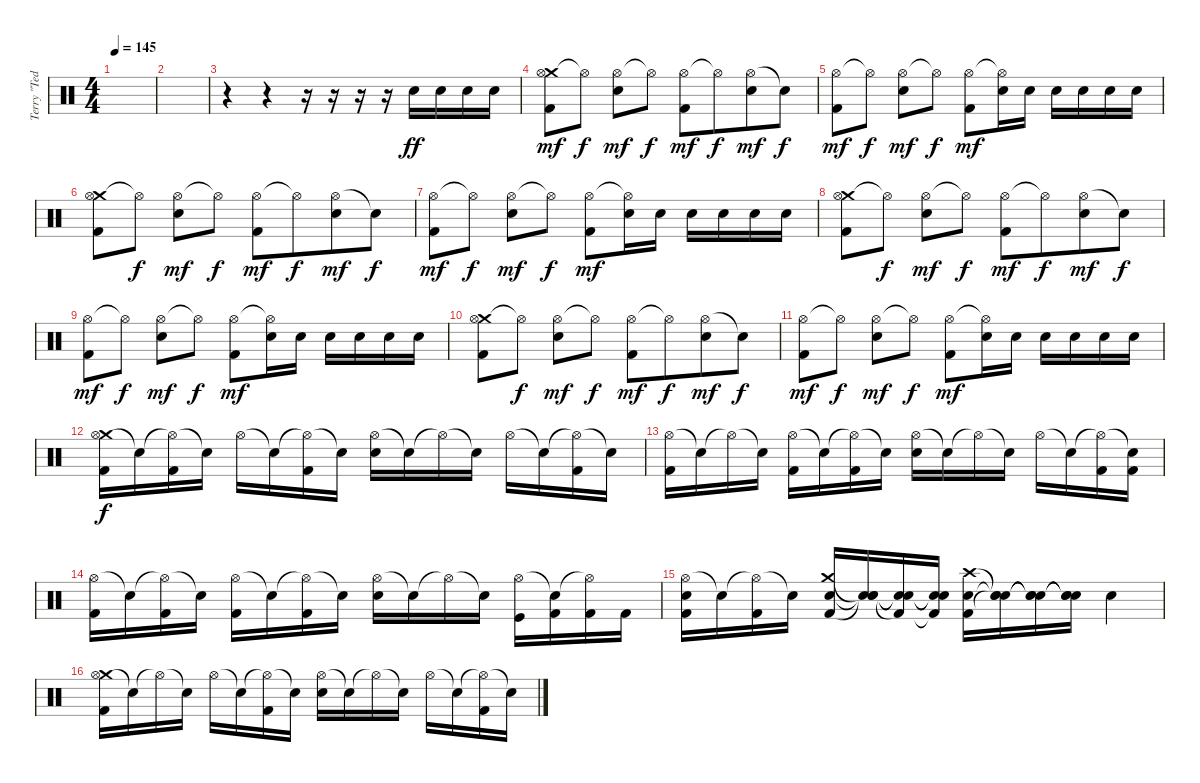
\track ("Terry \"Ted\" Bozzio" "Terry \"Ted") {instrument percussion}
\staff {score}
\articulation defaults
\ts (4 4)
\tempo 145
\clef neutral
\ks c
|
|
r.4 r.4 r.16 r.16 r.16{beam merge} r.16 "Electric Snare (hit)".16{dy ff beam merge} "Electric Snare (hit)".16 "Electric Snare (hit)".16 "Electric Snare (hit)".16 |
("Crash medium (hit)" "Hi-Hat (open)" "Kick (hit) 2").8{dy mf beam merge} "Hi-Hat (open)"{t}.8{dy f} ("Hi-Hat (open)" "Electric Snare (hit)").8{dy mf} "Hi-Hat (open)"{t}.8{dy f} ("Hi-Hat (open)" "Kick (hit) 2").8{dy mf beam merge} "Hi-Hat (open)"{t}.8{dy f beam merge} ("Hi-Hat (open)" "Electric Snare (hit)").8{dy mf} "Snare (hit)"{t}.8{dy f} |
("Hi-Hat (open)" "Kick (hit) 2").8{dy mf beam merge} "Hi-Hat (open)"{t}.8{dy f} ("Hi-Hat (open)" "Electric Snare (hit)").8{dy mf} "Hi-Hat (open)"{t}.8{dy f} ("Hi-Hat (open)" "Kick (hit) 2").8{dy mf beam merge} ("Hi-Hat (open)"{t} "Electric Snare (hit)").16 "Electric Snare (hit)".16 "Electric Snare (hit)".16 "Electric Snare (hit)".16 "Electric Snare (hit)".16 "Electric Snare (hit)".16 |
("Crash medium (hit)" "Hi-Hat (open)" "Kick (hit) 2").8{beam merge} "Hi-Hat (open)"{t}.8{dy f} ("Hi-Hat (open)" "Electric Snare (hit)").8{dy mf} "Hi-Hat (open)"{t}.8{dy f} ("Hi-Hat (open)" "Kick (hit) 2").8{dy mf beam merge} "Hi-Hat (open)"{t}.8{dy f beam merge} ("Hi-Hat (open)" "Electric Snare (hit)").8{dy mf} "Snare (hit)"{t}.8{dy f} |
("Hi-Hat (open)" "Kick (hit) 2").8{dy mf beam merge} "Hi-Hat (open)"{t}.8{dy f} ("Hi-Hat (open)" "Electric Snare (hit)").8{dy mf} "Hi-Hat (open)"{t}.8{dy f} ("Hi-Hat (open)" "Kick (hit) 2").8{dy mf beam merge} ("Hi-Hat (open)"{t} "Electric Snare (hit)").16 "Electric Snare (hit)".16 "Electric Snare (hit)".16 "Electric Snare (hit)".16 "Electric Snare (hit)".16 "Electric Snare (hit)".16 |
("Crash medium (hit)" "Hi-Hat (open)" "Kick (hit) 2").8{beam merge} "Hi-Hat (open)"{t}.8{dy f} ("Hi-Hat (open)" "Electric Snare (hit)").8{dy mf} "Hi-Hat (open)"{t}.8{dy f} ("Hi-Hat (open)" "Kick (hit) 2").8{dy mf beam merge} "Hi-Hat (open)"{t}.8{dy f beam merge} ("Hi-Hat (open)" "Electric Snare (hit)").8{dy mf} "Snare (hit)"{t}.8{dy f} |
("Hi-Hat (open)" "Kick (hit) 2").8{dy mf beam merge} "Hi-Hat (open)"{t}.8{dy f} ("Hi-Hat (open)" "Electric Snare (hit)").8{dy mf} "Hi-Hat (open)"{t}.8{dy f} ("Hi-Hat (open)" "Kick (hit) 2").8{dy mf beam merge} ("Hi-Hat (open)"{t} "Electric Snare (hit)").16 "Electric Snare (hit)".16 "Electric Snare (hit)".16 "Electric Snare (hit)".16 "Electric Snare (hit)".16 "Electric Snare (hit)".16 |
("Crash medium (hit)" "Hi-Hat (open)" "Kick (hit) 2").8{beam merge} "Hi-Hat (open)"{t}.8{dy f} ("Hi-Hat (open)" "Electric Snare (hit)").8{dy mf} "Hi-Hat (open)"{t}.8{dy f} ("Hi-Hat (open)" "Kick (hit) 2").8{dy mf beam merge} "Hi-Hat (open)"{t}.8{dy f beam merge} ("Hi-Hat (open)" "Electric Snare (hit)").8{dy mf} "Snare (hit)"{t}.8{dy f} |
("Hi-Hat (open)" "Kick (hit) 2").8{dy mf beam merge} "Hi-Hat (open)"{t}.8{dy f} ("Hi-Hat (open)" "Electric Snare (hit)").8{dy mf} "Hi-Hat (open)"{t}.8{dy f} ("Hi-Hat (open)" "Kick (hit) 2").8{dy mf beam merge} ("Hi-Hat (open)"{t} "Electric Snare (hit)").16 "Electric Snare (hit)".16 "Electric Snare (hit)".16 "Electric Snare (hit)".16 "Electric Snare (hit)".16 "Electric Snare (hit)".16 |
("Crash medium (hit)" "Hi-Hat (open)" "Kick (hit) 2").16{dy f beam merge} "Snare (hit)"{t}.16 ("Hi-Hat (open)"{t} "Kick (hit) 2").16 "Snare (hit)"{t}.16 "Hi-Hat (open)".16 "Snare (hit)"{t}.16{beam merge} ("Hi-Hat (open)"{t} "Kick (hit) 2").16{beam merge} "Snare (hit)"{t}.16 ("Hi-Hat (open)" "Electric Snare (hit)").16 "Snare (hit)"{t}.16 "Hi-Hat (open)"{t}.16 "Snare (hit)"{t}.16 "Hi-Hat (open)".16 "Snare (hit)"{t}.16 ("Hi-Hat (open)"{t} "Kick (hit) 2").16 "Snare (hit)"{t}.16 |
("Hi-Hat (open)" "Kick (hit) 2").16{beam merge} "Snare (hit)"{t}.16 "Hi-Hat (open)"{t}.16 "Snare (hit)"{t}.16 ("Hi-Hat (open)" "Kick (hit) 2").16 "Snare (hit)"{t}.16{beam merge} ("Hi-Hat (open)"{t} "Kick (hit) 2").16{beam merge} "Snare (hit)"{t}.16 ("Hi-Hat (open)" "Electric Snare (hit)").16 "Snare (hit)"{t}.16 "Hi-Hat (open)"{t}.16 "Snare (hit)"{t}.16 "Hi-Hat (open)".16 "Snare (hit)"{t}.16 ("Hi-Hat (open)"{t} "Kick (hit) 2").16 ("Snare (hit)"{t} "Kick (hit) 2").16 |
("Hi-Hat (open)" "Kick (hit) 2").16{beam merge} "Snare (hit)"{t}.16 ("Hi-Hat (open)"{t} "Kick (hit) 2").16 "Snare (hit)"{t}.16 ("Hi-Hat (open)" "Kick (hit) 2").16 "Snare (hit)"{t}.16{beam merge} ("Hi-Hat (open)"{t} "Kick (hit) 2").16{beam merge} "Snare (hit)"{t}.16 ("Hi-Hat (open)" "Electric Snare (hit)").16 "Snare (hit)"{t}.16 "Hi-Hat (open)"{t}.16 "Snare (hit)"{t}.16 ("Hi-Hat (open)" "Kick (hit)").16 ("Snare (hit)"{t} "Kick (hit) 2").16 ("Hi-Hat (open)"{t} "Kick (hit) 2").16{beam merge} "Kick (hit) 2".16 |
("Hi-Hat (open)" "Electric Snare (hit)" "Kick (hit) 2").16{beam merge} "Snare (hit)"{t}.16 ("Hi-Hat (open)"{t} "Kick (hit) 2").16 "Snare (hit)"{t}.16 ("Crash medium (hit)" "Electric Snare (hit)" "Kick (hit) 2").16 ("Snare (hit)"{t} "Snare (hit)"{t} "Snare (hit)"{t}).16{beam merge} ("Snare (hit)"{t} "Snare (hit)"{t} "Kick (hit) 2"{t}).16{beam merge} ("Snare (hit)"{t} "Snare (hit)"{t} "Kick (hit) 2"{t}).16 ("Crash high (hit)" "Electric Snare (hit)" "Kick (hit) 2").16 ("Snare (hit)"{t} "Snare (hit)"{t} "Snare (hit)"{t}).16 ("Snare (hit)"{t} "Snare (hit)"{t} "Snare (hit)"{t}).16 ("Snare (hit)"{t} "Snare (hit)"{t} "Snare (hit)"{t}).16 "Electric Snare (hit)".4 |
("Crash medium (hit)" "Hi-Hat (open)" "Kick (hit) 2").16{beam merge} "Snare (hit)"{t}.16 "Hi-Hat (open)"{t}.16 "Snare (hit)"{t}.16 "Hi-Hat (open)".16 "Snare (hit)"{t}.16{beam merge} ("Hi-Hat (open)"{t} "Kick (hit) 2").16{beam merge} "Snare (hit)"{t}.16 ("Hi-Hat (open)" "Electric Snare (hit)").16 "Snare (hit)"{t}.16 "Hi-Hat (open)"{t}.16 "Snare (hit)"{t}.16 "Hi-Hat (open)".16 "Snare (hit)"{t}.16 ("Hi-Hat (open)"{t} "Kick (hit) 2").16 "Snare (hit)"{t}.16
